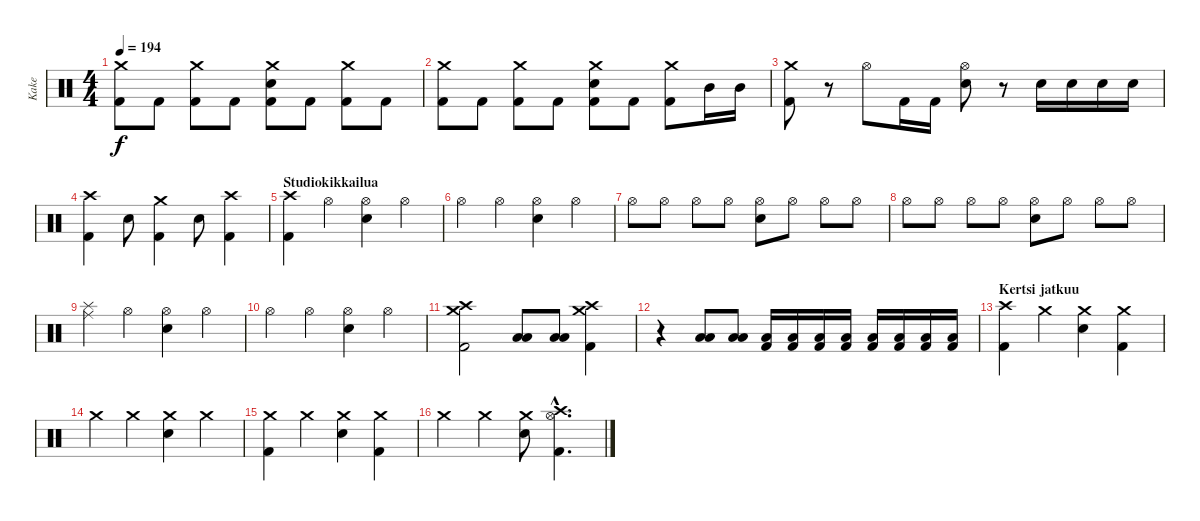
\track ("Kake" "Kake") {instrument percussion}
\staff {score}
\articulation defaults
\ts (4 4)
\tempo 194
\clef neutral
\ks c
("Crash medium (hit)" "Kick (hit) 2").8{dy f} "Kick (hit) 2".8 ("Crash medium (hit)" "Kick (hit) 2").8 "Kick (hit) 2".8 ("Crash medium (hit)" "Electric Snare (hit)" "Kick (hit) 2").8 "Kick (hit) 2".8 ("Crash medium (hit)" "Kick (hit) 2").8 "Kick (hit) 2".8 |
("Crash medium (hit)" "Kick (hit) 2").8 "Kick (hit) 2".8 ("Crash medium (hit)" "Kick (hit) 2").8 "Kick (hit) 2".8 ("Crash medium (hit)" "Electric Snare (hit)" "Kick (hit) 2").8 "Kick (hit) 2".8 ("Crash medium (hit)" "Kick (hit) 2").8 "Mid Tom (hit)".16 "Mid Tom (hit)".16 |
("Crash medium (hit)" "Kick (hit) 2").8 r.8 "Hi-Hat (open)".8 "Kick (hit) 2".16 "Kick (hit) 2".16 ("Hi-Hat (open)" "Electric Snare (hit)").8 r.8 "Electric Snare (hit)".16 "Electric Snare (hit)".16 "Electric Snare (hit)".16 "Electric Snare (hit)".16 |
("Crash high (hit)" "Kick (hit) 2").4 "Electric Snare (hit)".8 ("Crash medium (hit)" "Kick (hit) 2").4 "Electric Snare (hit)".8 ("Crash high (hit)" "Kick (hit) 2").4 |
\section ("" "Studiokikkailua")
("Crash high (hit)" "Kick (hit) 2").4 "Hi-Hat (open)".4{volume 10} ("Hi-Hat (open)" "Electric Snare (hit)").4 "Hi-Hat (open)".4 |
"Hi-Hat (open)".4 "Hi-Hat (open)".4 ("Hi-Hat (open)" "Electric Snare (hit)").4 "Hi-Hat (open)".4 |
"Hi-Hat (open)".8 "Hi-Hat (open)".8 "Hi-Hat (open)".8 "Hi-Hat (open)".8 ("Hi-Hat (open)" "Electric Snare (hit)").8 "Hi-Hat (open)".8 "Hi-Hat (open)".8 "Hi-Hat (open)".8 |
"Hi-Hat (open)".8 "Hi-Hat (open)".8 "Hi-Hat (open)".8 "Hi-Hat (open)".8 ("Hi-Hat (open)" "Electric Snare (hit)").8 "Hi-Hat (open)".8 "Hi-Hat (open)".8 "Hi-Hat (open)".8 |
("Splash (hit)" "Ride (middle)").4 "Hi-Hat (open)".4 ("Hi-Hat (open)" "Electric Snare (hit)").4 "Hi-Hat (open)".4 |
"Hi-Hat (open)".4 "Hi-Hat (open)".4 ("Hi-Hat (open)" "Electric Snare (hit)").4 "Hi-Hat (open)".4 |
("Crash high (hit)" "Crash medium (hit)" "Kick (hit) 2").2{volume 12} ("Low Tom (hit)" "Low Floor Tom (hit)").8 ("Low Tom (hit)" "Low Floor Tom (hit)").8 ("Crash high (hit)" "Crash medium (hit)" "Kick (hit) 2").4 |
r.4 ("Low Tom (hit)" "Low Floor Tom (hit)").8 ("Low Tom (hit)" "Low Floor Tom (hit)").8 ("Low Tom (hit)" "Kick (hit) 2").16 ("Low Tom (hit)" "Kick (hit) 2").16 ("Low Tom (hit)" "Kick (hit) 2").16 ("Low Tom (hit)" "Kick (hit) 2").16 ("Low Tom (hit)" "Kick (hit) 2").16 ("Low Tom (hit)" "Kick (hit) 2").16 ("Low Tom (hit)" "Kick (hit) 2").16 ("Low Tom (hit)" "Kick (hit) 2").16 |
\section ("" "Kertsi jatkuu")
("Crash high (hit)" "Kick (hit) 2").4 "Crash medium (hit)".4 ("Crash medium (hit)" "Electric Snare (hit)").4 ("Crash medium (hit)" "Kick (hit) 2").4 |
"Crash medium (hit)".4 "Crash medium (hit)".4 ("Crash medium (hit)" "Electric Snare (hit)").4 "Crash medium (hit)".4 |
("Crash medium (hit)" "Kick (hit) 2").4 "Crash medium (hit)".4 ("Crash medium (hit)" "Electric Snare (hit)").4 ("Crash medium (hit)" "Kick (hit) 2").4 |
"Crash medium (hit)".4 "Crash medium (hit)".4 ("Crash medium (hit)" "Electric Snare (hit)").8 ("Crash high (hit)"{hac} "Hi-Hat (open)"{hac} "Kick (hit) 2"{hac}).4{d}
